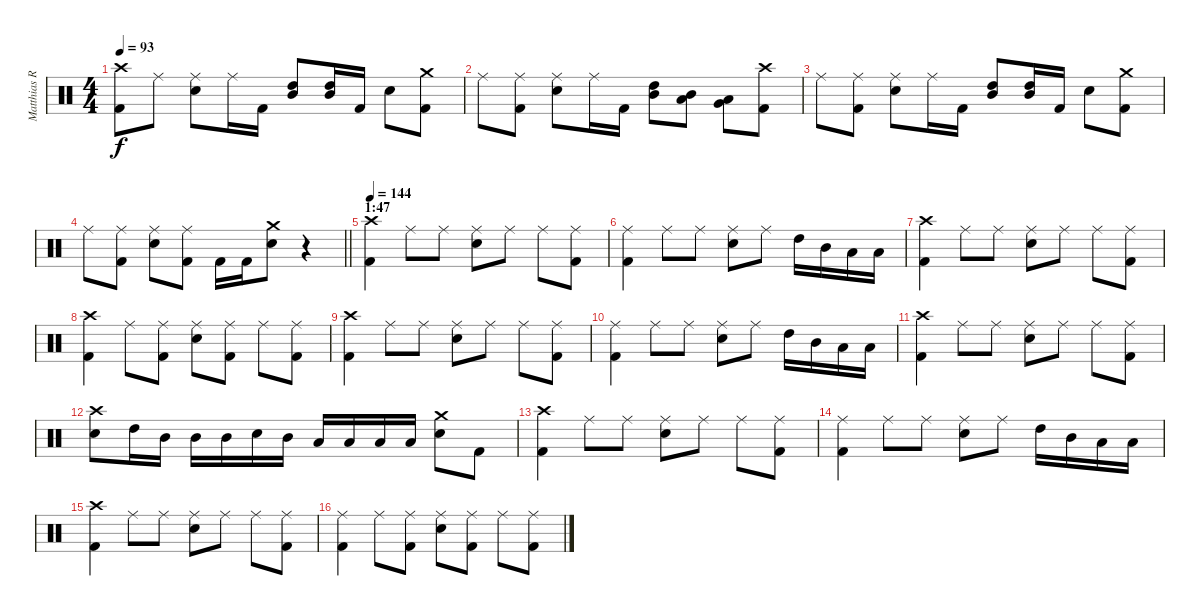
\track ("Matthias R." "Matthias R") {instrument percussion}
\staff {score}
\articulation defaults
\ts (4 4)
\tempo 93
\clef neutral
\ks c
("Kick (hit) 2" "Crash high (hit)").8{dy f} "Ride (middle)".8 ("Snare (hit) 2" "Ride (middle)").8 "Ride (middle)".16 "Kick (hit) 2".16 ("High Tom (hit)" "Mid Tom (hit)").8 ("High Tom (hit)" "Mid Tom (hit)").16 "Kick (hit) 2".16 "Snare (hit) 2".8 ("Kick (hit) 2" "Crash medium (hit)").8 |
"Ride (middle)".8 ("Kick (hit) 2" "Ride (middle)").8 ("Snare (hit) 2" "Ride (middle)").8 "Ride (middle)".16 "Kick (hit) 2".16 ("High Tom (hit)" "Mid Tom (hit)").8 ("Mid Tom (hit)" "Low Tom (hit)").8 ("Low Tom (hit)" "Very Low Tom (hit)").8 ("Kick (hit) 2" "Crash high (hit)").8 |
"Ride (middle)".8 ("Kick (hit) 2" "Ride (middle)").8 ("Snare (hit) 2" "Ride (middle)").8 "Ride (middle)".16 "Kick (hit) 2".16 ("High Tom (hit)" "Mid Tom (hit)").8 ("High Tom (hit)" "Mid Tom (hit)").16 "Kick (hit) 2".16 "Snare (hit) 2".8 ("Kick (hit) 2" "Crash medium (hit)").8 |
\barLineRight lightlight "Ride (middle)".8
("Kick (hit) 2" "Ride (middle)").8 ("Snare (hit) 2" "Ride (middle)").8 ("Kick (hit) 2" "Ride (middle)").8 "Kick (hit) 2".16 "Kick (hit) 2".16 ("Snare (hit) 2" "Crash medium (hit)").8 r.4 |
\section ("" "1:47")
\tempo 144
("Kick (hit) 2" "Crash high (hit)").4 "Ride (middle)".8 "Ride (middle)".8 ("Snare (hit) 2" "Ride (middle)").8 "Ride (middle)".8 "Ride (middle)".8 ("Kick (hit) 2" "Ride (middle)").8 |
("Kick (hit) 2" "Ride (middle)").4 "Ride (middle)".8 "Ride (middle)".8 ("Snare (hit) 2" "Ride (middle)").8 "Ride (middle)".8 "High Tom (hit)".16 "Mid Tom (hit)".16 "Low Tom (hit)".16 "Low Tom (hit)".16 |
("Kick (hit) 2" "Crash high (hit)").4 "Ride (middle)".8 "Ride (middle)".8 ("Snare (hit) 2" "Ride (middle)").8 "Ride (middle)".8 "Ride (middle)".8 ("Kick (hit) 2" "Ride (middle)").8 |
("Kick (hit) 2" "Crash high (hit)").4 "Ride (middle)".8 ("Kick (hit) 2" "Ride (middle)").8 ("Snare (hit) 2" "Ride (middle)").8 ("Kick (hit) 2" "Ride (middle)").8 "Ride (middle)".8 ("Kick (hit) 2" "Ride (middle)").8 |
("Kick (hit) 2" "Crash high (hit)").4 "Ride (middle)".8 "Ride (middle)".8 ("Snare (hit) 2" "Ride (middle)").8 "Ride (middle)".8 "Ride (middle)".8 ("Kick (hit) 2" "Ride (middle)").8 |
("Kick (hit) 2" "Ride (middle)").4 "Ride (middle)".8 "Ride (middle)".8 ("Snare (hit) 2" "Ride (middle)").8 "Ride (middle)".8 "High Tom (hit)".16 "Mid Tom (hit)".16 "Low Tom (hit)".16 "Low Tom (hit)".16 |
("Kick (hit) 2" "Crash high (hit)").4 "Ride (middle)".8 "Ride (middle)".8 ("Snare (hit) 2" "Ride (middle)").8 "Ride (middle)".8 "Ride (middle)".8 ("Kick (hit) 2" "Ride (middle)").8 |
("Snare (hit) 2" "Crash high (hit)").8 "High Tom (hit)".16 "Mid Tom (hit)".16 "Mid Tom (hit)".16 "Mid Tom (hit)".16 "Snare (hit) 2".16 "Mid Tom (hit)".16 "Low Tom (hit)".16 "Low Tom (hit)".16 "Low Tom (hit)".16 "Low Tom (hit)".16 ("Snare (hit) 2" "Crash medium (hit)").8 "Kick (hit) 2".8 |
("Kick (hit) 2" "Crash high (hit)").4 "Ride (middle)".8 "Ride (middle)".8 ("Snare (hit) 2" "Ride (middle)").8 "Ride (middle)".8 "Ride (middle)".8 ("Kick (hit) 2" "Ride (middle)").8 |
("Kick (hit) 2" "Ride (middle)").4 "Ride (middle)".8 "Ride (middle)".8 ("Snare (hit) 2" "Ride (middle)").8 "Ride (middle)".8 "High Tom (hit)".16 "Mid Tom (hit)".16 "Low Tom (hit)".16 "Low Tom (hit)".16 |
("Kick (hit) 2" "Crash high (hit)").4 "Ride (middle)".8 "Ride (middle)".8 ("Snare (hit) 2" "Ride (middle)").8 "Ride (middle)".8 "Ride (middle)".8 ("Kick (hit) 2" "Ride (middle)").8 |
("Kick (hit) 2" "Ride (middle)").4 "Ride (middle)".8 ("Kick (hit) 2" "Ride (middle)").8 ("Snare (hit) 2" "Ride (middle)").8 ("Kick (hit) 2" "Ride (middle)").8 "Ride (middle)".8 ("Kick (hit) 2" "Ride (middle)").8
